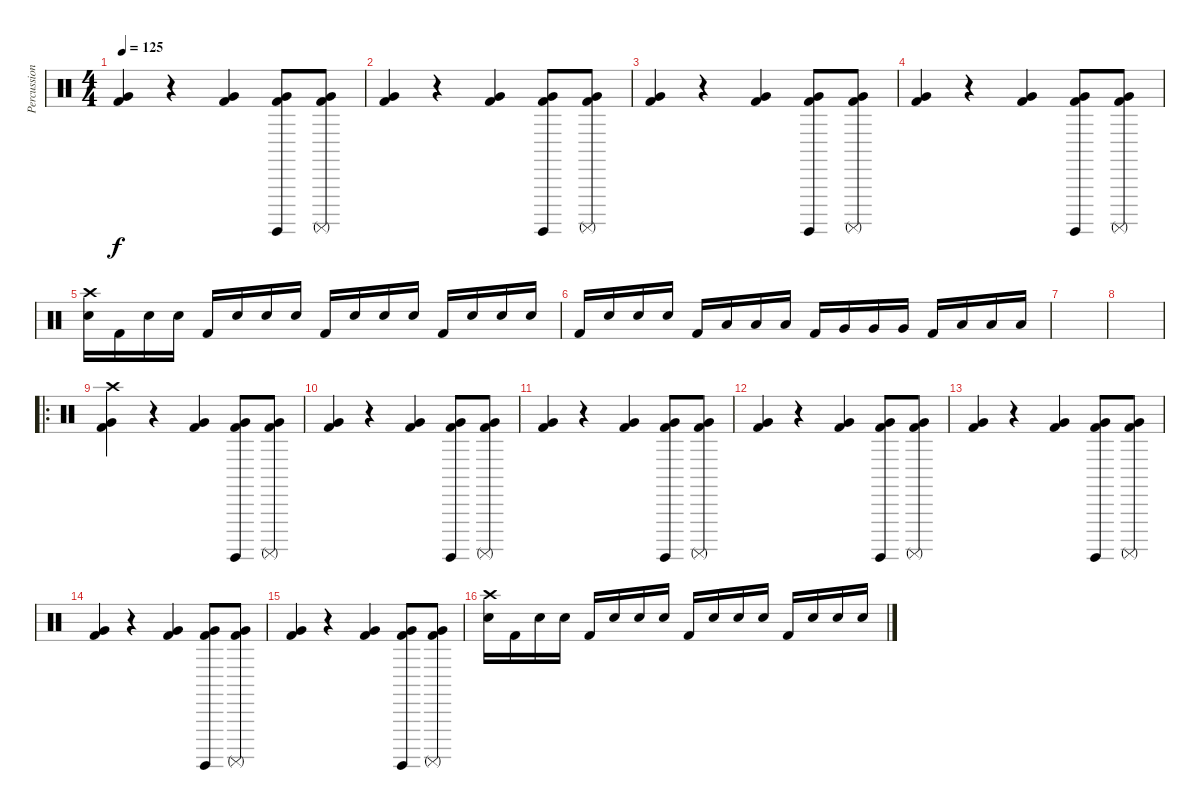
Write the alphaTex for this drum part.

\track ("Percussion" "Percussion") {instrument percussion}
\staff {score}
\articulation defaults
\ts (4 4)
\tempo 125
\clef neutral
\ks c
("Very Low Tom (hit)" "Kick (hit) 2").4{dy f} r.4 ("Very Low Tom (hit)" "Kick (hit) 2").4 ("Surdo (hit)" "Very Low Tom (hit)" "Kick (hit) 2").8 ("Surdo (mute)" "Very Low Tom (hit)" "Kick (hit) 2").8 |
("Very Low Tom (hit)" "Kick (hit) 2").4 r.4 ("Very Low Tom (hit)" "Kick (hit) 2").4 ("Surdo (hit)" "Very Low Tom (hit)" "Kick (hit) 2").8 ("Surdo (mute)" "Very Low Tom (hit)" "Kick (hit) 2").8 |
("Very Low Tom (hit)" "Kick (hit) 2").4 r.4 ("Very Low Tom (hit)" "Kick (hit) 2").4 ("Surdo (hit)" "Very Low Tom (hit)" "Kick (hit) 2").8 ("Surdo (mute)" "Very Low Tom (hit)" "Kick (hit) 2").8 |
("Very Low Tom (hit)" "Kick (hit) 2").4 r.4 ("Very Low Tom (hit)" "Kick (hit) 2").4 ("Surdo (hit)" "Very Low Tom (hit)" "Kick (hit) 2").8 ("Surdo (mute)" "Very Low Tom (hit)" "Kick (hit) 2").8 |
("Crash high (hit)" "Snare (hit) 2").16 "Kick (hit) 2".16 "Snare (hit) 2".16 "Snare (hit) 2".16 "Kick (hit) 2".16 "Snare (hit) 2".16 "Snare (hit) 2".16 "Snare (hit) 2".16 "Kick (hit) 2".16 "Snare (hit) 2".16 "Snare (hit) 2".16 "Snare (hit) 2".16 "Kick (hit) 2".16 "Snare (hit) 2".16 "Snare (hit) 2".16 "Snare (hit) 2".16 |
"Kick (hit) 2".16 "Snare (hit) 2".16 "Snare (hit) 2".16 "Snare (hit) 2".16 "Kick (hit) 2".16 "Low Floor Tom (hit)".16 "Low Floor Tom (hit)".16 "Low Floor Tom (hit)".16 "Kick (hit) 2".16 "Very Low Tom (hit)".16 "Very Low Tom (hit)".16 "Very Low Tom (hit)".16 "Kick (hit) 2".16 "Low Tom (hit)".16 "Low Tom (hit)".16 "Low Tom (hit)".16 |
|
|
\ro
("Crash high (hit)" "Very Low Tom (hit)" "Kick (hit) 2").4 r.4 ("Very Low Tom (hit)" "Kick (hit) 2").4 ("Surdo (hit)" "Very Low Tom (hit)" "Kick (hit) 2").8 ("Surdo (mute)" "Very Low Tom (hit)" "Kick (hit) 2").8 |
("Very Low Tom (hit)" "Kick (hit) 2").4 r.4 ("Very Low Tom (hit)" "Kick (hit) 2").4 ("Surdo (hit)" "Very Low Tom (hit)" "Kick (hit) 2").8 ("Surdo (mute)" "Very Low Tom (hit)" "Kick (hit) 2").8 |
("Very Low Tom (hit)" "Kick (hit) 2").4 r.4 ("Very Low Tom (hit)" "Kick (hit) 2").4 ("Surdo (hit)" "Very Low Tom (hit)" "Kick (hit) 2").8 ("Surdo (mute)" "Very Low Tom (hit)" "Kick (hit) 2").8 |
("Very Low Tom (hit)" "Kick (hit) 2").4 r.4 ("Very Low Tom (hit)" "Kick (hit) 2").4 ("Surdo (hit)" "Very Low Tom (hit)" "Kick (hit) 2").8 ("Surdo (mute)" "Very Low Tom (hit)" "Kick (hit) 2").8 |
("Very Low Tom (hit)" "Kick (hit) 2").4 r.4 ("Very Low Tom (hit)" "Kick (hit) 2").4 ("Surdo (hit)" "Very Low Tom (hit)" "Kick (hit) 2").8 ("Surdo (mute)" "Very Low Tom (hit)" "Kick (hit) 2").8 |
("Very Low Tom (hit)" "Kick (hit) 2").4 r.4 ("Very Low Tom (hit)" "Kick (hit) 2").4 ("Surdo (hit)" "Very Low Tom (hit)" "Kick (hit) 2").8 ("Surdo (mute)" "Very Low Tom (hit)" "Kick (hit) 2").8 |
("Very Low Tom (hit)" "Kick (hit) 2").4 r.4 ("Very Low Tom (hit)" "Kick (hit) 2").4 ("Surdo (hit)" "Very Low Tom (hit)" "Kick (hit) 2").8 ("Surdo (mute)" "Very Low Tom (hit)" "Kick (hit) 2").8 |
("Crash high (hit)" "Snare (hit) 2").16 "Kick (hit) 2".16 "Snare (hit) 2".16 "Snare (hit) 2".16 "Kick (hit) 2".16 "Snare (hit) 2".16 "Snare (hit) 2".16 "Snare (hit) 2".16 "Kick (hit) 2".16 "Snare (hit) 2".16 "Snare (hit) 2".16 "Snare (hit) 2".16 "Kick (hit) 2".16 "Snare (hit) 2".16 "Snare (hit) 2".16 "Snare (hit) 2".16
